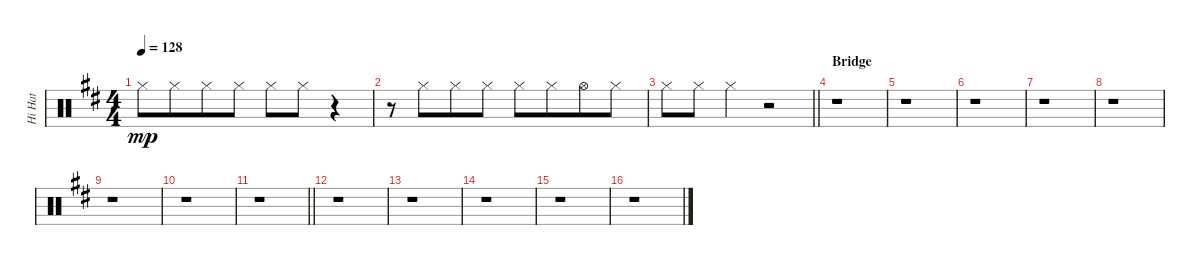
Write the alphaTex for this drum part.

\track ("Hi Hat" "Hi Hat") {instrument percussion}
\staff {score}
\articulation defaults
\ts (4 4)
\tempo 128
\clef neutral
\ks bminor "Hi-Hat (closed)".8{dy mp} "Hi-Hat (closed)".8{beam merge} "Hi-Hat (closed)".8 "Hi-Hat (closed)".8 "Hi-Hat (closed)".8 "Hi-Hat (closed)".8
r.4 |
r.8 "Hi-Hat (closed)".8{beam merge} "Hi-Hat (closed)".8 "Hi-Hat (closed)".8 "Hi-Hat (closed)".8 "Hi-Hat (closed)".8{beam merge} "Hi-Hat (open)".8 "Hi-Hat (closed)".8 |
\barLineRight lightlight "Hi-Hat (closed)".8 "Hi-Hat (closed)".8{beam merge} "Hi-Hat (closed)".4
r.2 |
\section ("" "Bridge")
r.1 |
r.1 |
r.1 |
r.1 |
r.1 |
r.1 |
r.1 |
\barLineRight lightlight
r.1 |
r.1 |
r.1 |
r.1 |
r.1 |
r.1
